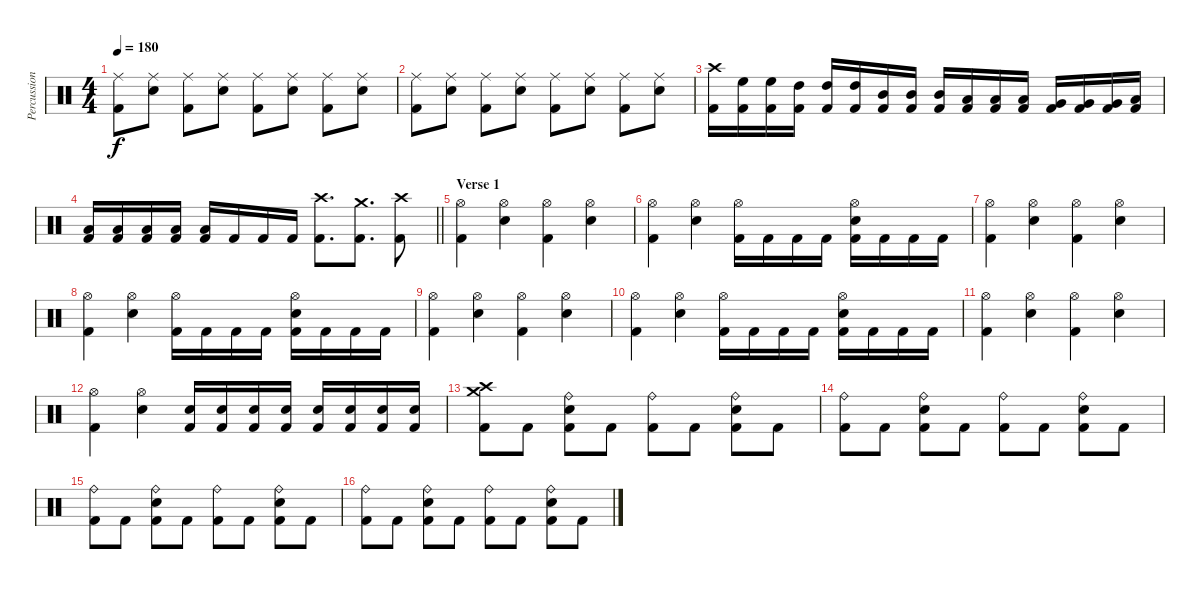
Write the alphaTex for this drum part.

\track ("Percussion" "Percussion") {instrument percussion}
\staff {score}
\articulation defaults
\ts (4 4)
\tempo 180
\clef neutral
\ks c
("Ride (middle)" "Kick (hit) 2").8{dy f} ("Ride (middle)" "Electric Snare (hit)").8 ("Ride (middle)" "Kick (hit) 2").8 ("Ride (middle)" "Electric Snare (hit)").8 ("Ride (middle)" "Kick (hit) 2").8 ("Ride (middle)" "Electric Snare (hit)").8 ("Ride (middle)" "Kick (hit) 2").8 ("Ride (middle)" "Electric Snare (hit)").8 |
("Ride (middle)" "Kick (hit) 2").8 ("Ride (middle)" "Electric Snare (hit)").8 ("Ride (middle)" "Kick (hit) 2").8 ("Ride (middle)" "Electric Snare (hit)").8 ("Ride (middle)" "Kick (hit) 2").8 ("Ride (middle)" "Electric Snare (hit)").8 ("Ride (middle)" "Kick (hit) 2").8 ("Ride (middle)" "Electric Snare (hit)").8 |
("Crash high (hit)" "Kick (hit) 2").16 ("High Floor Tom (hit)" "Kick (hit) 2").16 ("High Floor Tom (hit)" "Kick (hit) 2").16 ("High Tom (hit)" "Kick (hit) 2").16 ("High Tom (hit)" "Kick (hit) 2").16 ("High Tom (hit)" "Kick (hit) 2").16 ("Mid Tom (hit)" "Kick (hit) 2").16 ("Mid Tom (hit)" "Kick (hit) 2").16 ("Mid Tom (hit)" "Kick (hit) 2").16 ("Low Tom (hit)" "Kick (hit) 2").16 ("Low Tom (hit)" "Kick (hit) 2").16 ("Low Tom (hit)" "Kick (hit) 2").16 ("Very Low Tom (hit)" "Kick (hit) 2").16 ("Very Low Tom (hit)" "Kick (hit) 2").16 ("Very Low Tom (hit)" "Kick (hit) 2").16 ("Low Floor Tom (hit)" "Kick (hit) 2").16 |
\barLineRight lightlight
("Low Floor Tom (hit)" "Kick (hit) 2").16 ("Low Floor Tom (hit)" "Kick (hit) 2").16 ("Low Floor Tom (hit)" "Kick (hit) 2").16 ("Low Floor Tom (hit)" "Kick (hit) 2").16 ("Low Floor Tom (hit)" "Kick (hit) 2").16 "Kick (hit) 2".16 "Kick (hit) 2".16 "Kick (hit) 2".16 ("Crash high (hit)" "Kick (hit) 2").8{d} ("Crash medium (hit)" "Kick (hit) 2").8{d} ("Crash high (hit)" "Kick (hit) 2").8 |
\section ("" "Verse 1")
("Hi-Hat (open)" "Kick (hit) 2").4 ("Hi-Hat (open)" "Electric Snare (hit)").4 ("Hi-Hat (open)" "Kick (hit) 2").4 ("Hi-Hat (open)" "Electric Snare (hit)").4 |
("Hi-Hat (open)" "Kick (hit) 2").4 ("Hi-Hat (open)" "Electric Snare (hit)").4 ("Hi-Hat (open)" "Kick (hit) 2").16 "Kick (hit) 2".16 "Kick (hit) 2".16 "Kick (hit) 2".16 ("Hi-Hat (open)" "Electric Snare (hit)" "Kick (hit) 2").16 "Kick (hit) 2".16 "Kick (hit) 2".16 "Kick (hit) 2".16 |
("Hi-Hat (open)" "Kick (hit) 2").4 ("Hi-Hat (open)" "Electric Snare (hit)").4 ("Hi-Hat (open)" "Kick (hit) 2").4 ("Hi-Hat (open)" "Electric Snare (hit)").4 |
("Hi-Hat (open)" "Kick (hit) 2").4 ("Hi-Hat (open)" "Electric Snare (hit)").4 ("Hi-Hat (open)" "Kick (hit) 2").16 "Kick (hit) 2".16 "Kick (hit) 2".16 "Kick (hit) 2".16 ("Hi-Hat (open)" "Electric Snare (hit)" "Kick (hit) 2").16 "Kick (hit) 2".16 "Kick (hit) 2".16 "Kick (hit) 2".16 |
("Hi-Hat (open)" "Kick (hit) 2").4 ("Hi-Hat (open)" "Electric Snare (hit)").4 ("Hi-Hat (open)" "Kick (hit) 2").4 ("Hi-Hat (open)" "Electric Snare (hit)").4 |
("Hi-Hat (open)" "Kick (hit) 2").4 ("Hi-Hat (open)" "Electric Snare (hit)").4 ("Hi-Hat (open)" "Kick (hit) 2").16 "Kick (hit) 2".16 "Kick (hit) 2".16 "Kick (hit) 2".16 ("Hi-Hat (open)" "Electric Snare (hit)" "Kick (hit) 2").16 "Kick (hit) 2".16 "Kick (hit) 2".16 "Kick (hit) 2".16 |
("Hi-Hat (open)" "Kick (hit) 2").4 ("Hi-Hat (open)" "Electric Snare (hit)").4 ("Hi-Hat (open)" "Kick (hit) 2").4 ("Hi-Hat (open)" "Electric Snare (hit)").4 |
("Hi-Hat (open)" "Kick (hit) 2").4 ("Hi-Hat (open)" "Electric Snare (hit)").4 ("Electric Snare (hit)" "Kick (hit) 2").16 ("Electric Snare (hit)" "Kick (hit) 2").16 ("Electric Snare (hit)" "Kick (hit) 2").16 ("Electric Snare (hit)" "Kick (hit) 2").16 ("Electric Snare (hit)" "Kick (hit) 2").16 ("Electric Snare (hit)" "Kick (hit) 2").16 ("Electric Snare (hit)" "Kick (hit) 2").16 ("Electric Snare (hit)" "Kick (hit) 2").16 |
("Crash medium (hit)" "Crash high (hit)" "Kick (hit) 2").8 "Kick (hit) 2".8 ("Ride (bell)" "Electric Snare (hit)" "Kick (hit) 2").8 "Kick (hit) 2".8 ("Ride (bell)" "Kick (hit) 2").8 "Kick (hit) 2".8 ("Ride (bell)" "Electric Snare (hit)" "Kick (hit) 2").8 "Kick (hit) 2".8 |
("Ride (bell)" "Kick (hit) 2").8 "Kick (hit) 2".8 ("Ride (bell)" "Electric Snare (hit)" "Kick (hit) 2").8 "Kick (hit) 2".8 ("Ride (bell)" "Kick (hit) 2").8 "Kick (hit) 2".8 ("Ride (bell)" "Electric Snare (hit)" "Kick (hit) 2").8 "Kick (hit) 2".8 |
("Ride (bell)" "Kick (hit) 2").8 "Kick (hit) 2".8 ("Ride (bell)" "Electric Snare (hit)" "Kick (hit) 2").8 "Kick (hit) 2".8 ("Ride (bell)" "Kick (hit) 2").8 "Kick (hit) 2".8 ("Ride (bell)" "Electric Snare (hit)" "Kick (hit) 2").8 "Kick (hit) 2".8 |
("Ride (bell)" "Kick (hit) 2").8 "Kick (hit) 2".8 ("Ride (bell)" "Electric Snare (hit)" "Kick (hit) 2").8 "Kick (hit) 2".8 ("Ride (bell)" "Kick (hit) 2").8 "Kick (hit) 2".8 ("Ride (bell)" "Electric Snare (hit)" "Kick (hit) 2").8 "Kick (hit) 2".8
